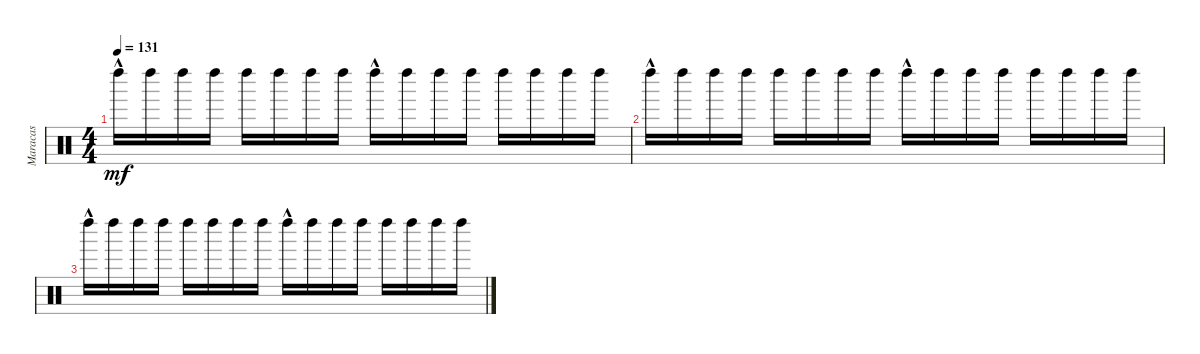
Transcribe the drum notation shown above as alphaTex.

\track ("Maracas" "Maracas") {instrument percussion}
\staff {score}
\articulation defaults
\ts (4 4)
\tempo 131
\clef neutral
\ks c "Left Maraca (hit)"{hac}.16{dy mf} "Left Maraca (hit)".16 "Left Maraca (hit)".16 "Left Maraca (hit)".16 "Left Maraca (hit)".16 "Left Maraca (hit)".16 "Left Maraca (hit)".16 "Left Maraca (hit)".16 "Left Maraca (hit)"{hac}.16 "Left Maraca (hit)".16 "Left Maraca (hit)".16 "Left Maraca (hit)".16 "Left Maraca (hit)".16 "Left Maraca (hit)".16 "Left Maraca (hit)".16 "Left Maraca (hit)".16
|
"Left Maraca (hit)"{hac}.16 "Left Maraca (hit)".16 "Left Maraca (hit)".16 "Left Maraca (hit)".16 "Left Maraca (hit)".16 "Left Maraca (hit)".16 "Left Maraca (hit)".16 "Left Maraca (hit)".16 "Left Maraca (hit)"{hac}.16 "Left Maraca (hit)".16 "Left Maraca (hit)".16 "Left Maraca (hit)".16 "Left Maraca (hit)".16 "Left Maraca (hit)".16 "Left Maraca (hit)".16 "Left Maraca (hit)".16 |
"Left Maraca (hit)"{hac}.16 "Left Maraca (hit)".16 "Left Maraca (hit)".16 "Left Maraca (hit)".16 "Left Maraca (hit)".16 "Left Maraca (hit)".16 "Left Maraca (hit)".16 "Left Maraca (hit)".16 "Left Maraca (hit)"{hac}.16 "Left Maraca (hit)".16 "Left Maraca (hit)".16 "Left Maraca (hit)".16 "Left Maraca (hit)".16 "Left Maraca (hit)".16 "Left Maraca (hit)".16 "Left Maraca (hit)".16
